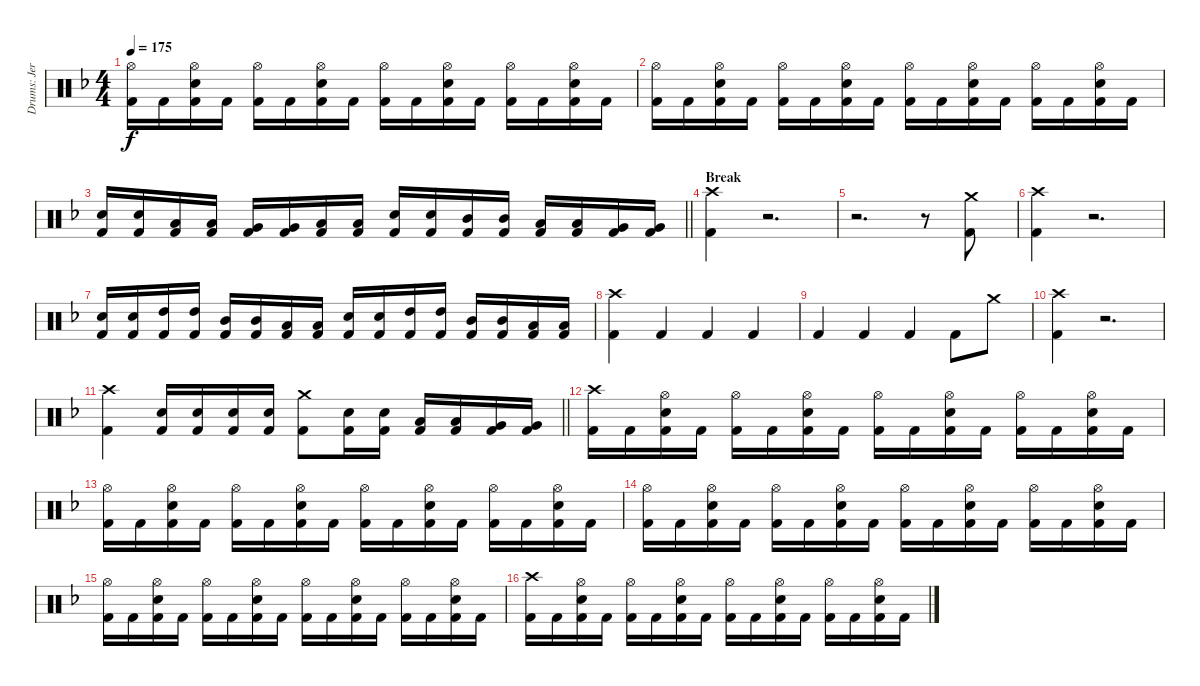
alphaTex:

\track ("Drums: Jere Luokkamäki" "Drums: Jer") {instrument percussion}
\staff {score}
\articulation defaults
\ts (4 4)
\tempo 175
\clef neutral
\ks dminor
("Hi-Hat (open)" "Kick (hit) 2").16{dy f} "Kick (hit) 2".16 ("Hi-Hat (open)" "Electric Snare (hit)" "Kick (hit) 2").16 "Kick (hit) 2".16 ("Hi-Hat (open)" "Kick (hit) 2").16 "Kick (hit) 2".16 ("Hi-Hat (open)" "Electric Snare (hit)" "Kick (hit) 2").16 "Kick (hit) 2".16 ("Hi-Hat (open)" "Kick (hit) 2").16 "Kick (hit) 2".16 ("Hi-Hat (open)" "Electric Snare (hit)" "Kick (hit) 2").16 "Kick (hit) 2".16 ("Hi-Hat (open)" "Kick (hit) 2").16 "Kick (hit) 2".16 ("Hi-Hat (open)" "Electric Snare (hit)" "Kick (hit) 2").16 "Kick (hit) 2".16 |
("Hi-Hat (open)" "Kick (hit) 2").16 "Kick (hit) 2".16 ("Hi-Hat (open)" "Electric Snare (hit)" "Kick (hit) 2").16 "Kick (hit) 2".16 ("Hi-Hat (open)" "Kick (hit) 2").16 "Kick (hit) 2".16 ("Hi-Hat (open)" "Electric Snare (hit)" "Kick (hit) 2").16 "Kick (hit) 2".16 ("Hi-Hat (open)" "Kick (hit) 2").16 "Kick (hit) 2".16 ("Hi-Hat (open)" "Electric Snare (hit)" "Kick (hit) 2").16 "Kick (hit) 2".16 ("Hi-Hat (open)" "Kick (hit) 2").16 "Kick (hit) 2".16 ("Hi-Hat (open)" "Electric Snare (hit)" "Kick (hit) 2").16 "Kick (hit) 2".16 |
\barLineRight lightlight
("Electric Snare (hit)" "Kick (hit) 2").16 ("Electric Snare (hit)" "Kick (hit) 2").16 ("Low Tom (hit)" "Kick (hit) 2").16 ("Low Tom (hit)" "Kick (hit) 2").16 ("Very Low Tom (hit)" "Kick (hit) 2").16 ("Very Low Tom (hit)" "Kick (hit) 2").16 ("Low Tom (hit)" "Kick (hit) 2").16 ("Low Tom (hit)" "Kick (hit) 2").16 ("Electric Snare (hit)" "Kick (hit) 2").16 ("Electric Snare (hit)" "Kick (hit) 2").16 ("Mid Tom (hit)" "Kick (hit) 2").16 ("Mid Tom (hit)" "Kick (hit) 2").16 ("Low Tom (hit)" "Kick (hit) 2").16 ("Low Tom (hit)" "Kick (hit) 2").16 ("Very Low Tom (hit)" "Kick (hit) 2").16 ("Very Low Tom (hit)" "Kick (hit) 2").16 |
\section ("" "Break")
("Crash high (hit)" "Kick (hit) 2").4 r.2{d} |
r.2{d} r.8 ("Crash medium (hit)" "Kick (hit) 2").8 |
("Crash high (hit)" "Kick (hit) 2").4 r.2{d} |
("Electric Snare (hit)" "Kick (hit) 2").16 ("Electric Snare (hit)" "Kick (hit) 2").16 ("High Tom (hit)" "Kick (hit) 2").16 ("High Tom (hit)" "Kick (hit) 2").16 ("Mid Tom (hit)" "Kick (hit) 2").16 ("Mid Tom (hit)" "Kick (hit) 2").16 ("Low Tom (hit)" "Kick (hit) 2").16 ("Low Tom (hit)" "Kick (hit) 2").16 ("Electric Snare (hit)" "Kick (hit) 2").16 ("Electric Snare (hit)" "Kick (hit) 2").16 ("High Tom (hit)" "Kick (hit) 2").16 ("High Tom (hit)" "Kick (hit) 2").16 ("Mid Tom (hit)" "Kick (hit) 2").16 ("Mid Tom (hit)" "Kick (hit) 2").16 ("Low Tom (hit)" "Kick (hit) 2").16 ("Low Tom (hit)" "Kick (hit) 2").16 |
("Crash high (hit)" "Kick (hit) 2").4 "Kick (hit) 2".4 "Kick (hit) 2".4 "Kick (hit) 2".4 |
"Kick (hit) 2".4 "Kick (hit) 2".4 "Kick (hit) 2".4 "Kick (hit) 2".8 "Crash medium (hit)".8 |
("Crash high (hit)" "Kick (hit) 2").4 r.2{d} |
\barLineRight lightlight
("Crash high (hit)" "Kick (hit) 2").4 ("Electric Snare (hit)" "Kick (hit) 2").16 ("Electric Snare (hit)" "Kick (hit) 2").16 ("Electric Snare (hit)" "Kick (hit) 2").16 ("Electric Snare (hit)" "Kick (hit) 2").16 ("Crash medium (hit)" "Kick (hit) 2").8 ("Electric Snare (hit)" "Kick (hit) 2").16 ("Electric Snare (hit)" "Kick (hit) 2").16 ("Low Tom (hit)" "Kick (hit) 2").16 ("Low Tom (hit)" "Kick (hit) 2").16 ("Very Low Tom (hit)" "Kick (hit) 2").16 ("Very Low Tom (hit)" "Kick (hit) 2").16 |
("Crash high (hit)" "Kick (hit) 2").16 "Kick (hit) 2".16 ("Hi-Hat (open)" "Electric Snare (hit)" "Kick (hit) 2").16 "Kick (hit) 2".16 ("Hi-Hat (open)" "Kick (hit) 2").16 "Kick (hit) 2".16 ("Hi-Hat (open)" "Electric Snare (hit)" "Kick (hit) 2").16 "Kick (hit) 2".16 ("Hi-Hat (open)" "Kick (hit) 2").16 "Kick (hit) 2".16 ("Hi-Hat (open)" "Electric Snare (hit)" "Kick (hit) 2").16 "Kick (hit) 2".16 ("Hi-Hat (open)" "Kick (hit) 2").16 "Kick (hit) 2".16 ("Hi-Hat (open)" "Electric Snare (hit)" "Kick (hit) 2").16 "Kick (hit) 2".16 |
("Hi-Hat (open)" "Kick (hit) 2").16 "Kick (hit) 2".16 ("Hi-Hat (open)" "Electric Snare (hit)" "Kick (hit) 2").16 "Kick (hit) 2".16 ("Hi-Hat (open)" "Kick (hit) 2").16 "Kick (hit) 2".16 ("Hi-Hat (open)" "Electric Snare (hit)" "Kick (hit) 2").16 "Kick (hit) 2".16 ("Hi-Hat (open)" "Kick (hit) 2").16 "Kick (hit) 2".16 ("Hi-Hat (open)" "Electric Snare (hit)" "Kick (hit) 2").16 "Kick (hit) 2".16 ("Hi-Hat (open)" "Kick (hit) 2").16 "Kick (hit) 2".16 ("Hi-Hat (open)" "Electric Snare (hit)" "Kick (hit) 2").16 "Kick (hit) 2".16 |
("Hi-Hat (open)" "Kick (hit) 2").16 "Kick (hit) 2".16 ("Hi-Hat (open)" "Electric Snare (hit)" "Kick (hit) 2").16 "Kick (hit) 2".16 ("Hi-Hat (open)" "Kick (hit) 2").16 "Kick (hit) 2".16 ("Hi-Hat (open)" "Electric Snare (hit)" "Kick (hit) 2").16 "Kick (hit) 2".16 ("Hi-Hat (open)" "Kick (hit) 2").16 "Kick (hit) 2".16 ("Hi-Hat (open)" "Electric Snare (hit)" "Kick (hit) 2").16 "Kick (hit) 2".16 ("Hi-Hat (open)" "Kick (hit) 2").16 "Kick (hit) 2".16 ("Hi-Hat (open)" "Electric Snare (hit)" "Kick (hit) 2").16 "Kick (hit) 2".16 |
("Hi-Hat (open)" "Kick (hit) 2").16 "Kick (hit) 2".16 ("Hi-Hat (open)" "Electric Snare (hit)" "Kick (hit) 2").16 "Kick (hit) 2".16 ("Hi-Hat (open)" "Kick (hit) 2").16 "Kick (hit) 2".16 ("Hi-Hat (open)" "Electric Snare (hit)" "Kick (hit) 2").16 "Kick (hit) 2".16 ("Hi-Hat (open)" "Kick (hit) 2").16 "Kick (hit) 2".16 ("Hi-Hat (open)" "Electric Snare (hit)" "Kick (hit) 2").16 "Kick (hit) 2".16 ("Hi-Hat (open)" "Kick (hit) 2").16 "Kick (hit) 2".16 ("Hi-Hat (open)" "Electric Snare (hit)" "Kick (hit) 2").16 "Kick (hit) 2".16 |
("Crash high (hit)" "Kick (hit) 2").16 "Kick (hit) 2".16 ("Hi-Hat (open)" "Electric Snare (hit)" "Kick (hit) 2").16 "Kick (hit) 2".16 ("Hi-Hat (open)" "Kick (hit) 2").16 "Kick (hit) 2".16 ("Hi-Hat (open)" "Electric Snare (hit)" "Kick (hit) 2").16 "Kick (hit) 2".16 ("Hi-Hat (open)" "Kick (hit) 2").16 "Kick (hit) 2".16 ("Hi-Hat (open)" "Electric Snare (hit)" "Kick (hit) 2").16 "Kick (hit) 2".16 ("Hi-Hat (open)" "Kick (hit) 2").16 "Kick (hit) 2".16 ("Hi-Hat (open)" "Electric Snare (hit)" "Kick (hit) 2").16 "Kick (hit) 2".16
